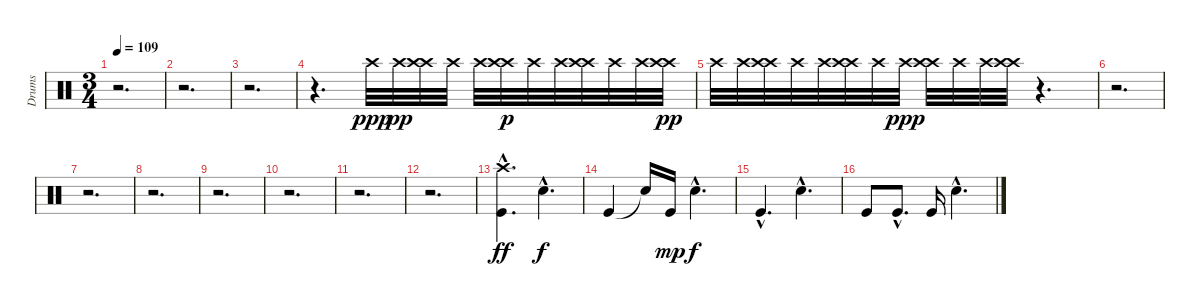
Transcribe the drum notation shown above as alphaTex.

\track ("Drums" "Drums") {instrument percussion}
\staff {score}
\articulation defaults
\ts (3 4)
\tempo 109
\clef neutral
\ks c
r.2{d dy ppp} |
r.2{d} |
r.2{d} |
r.4{d} "Crash high (hit)".32 "Crash high (hit)".32{dy pp} ("Crash high (hit)" "Crash high (hit)").32 "Crash high (hit)".32 "Crash high (hit)".32 ("Crash high (hit)" "Crash high (hit)").32{dy p} "Crash high (hit)".32 "Crash high (hit)".32 ("Crash high (hit)" "Crash high (hit)").32 "Crash high (hit)".32 "Crash high (hit)".32 ("Crash high (hit)" "Crash high (hit)").32{dy pp} |
"Crash high (hit)".32 "Crash high (hit)".32 ("Crash high (hit)" "Crash high (hit)").32 "Crash high (hit)".32 "Crash high (hit)".32 ("Crash high (hit)" "Crash high (hit)").32 "Crash high (hit)".32 "Crash high (hit)".32{dy ppp} ("Crash high (hit)" "Crash high (hit)").32 "Crash high (hit)".32 "Crash high (hit)".32 ("Crash high (hit)" "Crash high (hit)").32 r.4{d} |
r.2{d} |
r.2{d} |
r.2{d} |
r.2{d} |
r.2{d} |
r.2{d} |
r.2{d} |
("Crash high (hit)"{hac} "Kick (hit)"{hac}).4{d dy ff} "Electric Snare (hit)"{hac}.4{d dy f} |
"Kick (hit)".4 "Snare (hit)"{t}.16 "Kick (hit)".16{dy mp} "Electric Snare (hit)"{hac}.4{d dy f} |
"Kick (hit)"{hac}.4{d} "Electric Snare (hit)"{hac}.4{d} |
"Kick (hit)".8 "Kick (hit)"{hac}.8{d} "Kick (hit)".16 "Electric Snare (hit)"{hac}.4{d}
